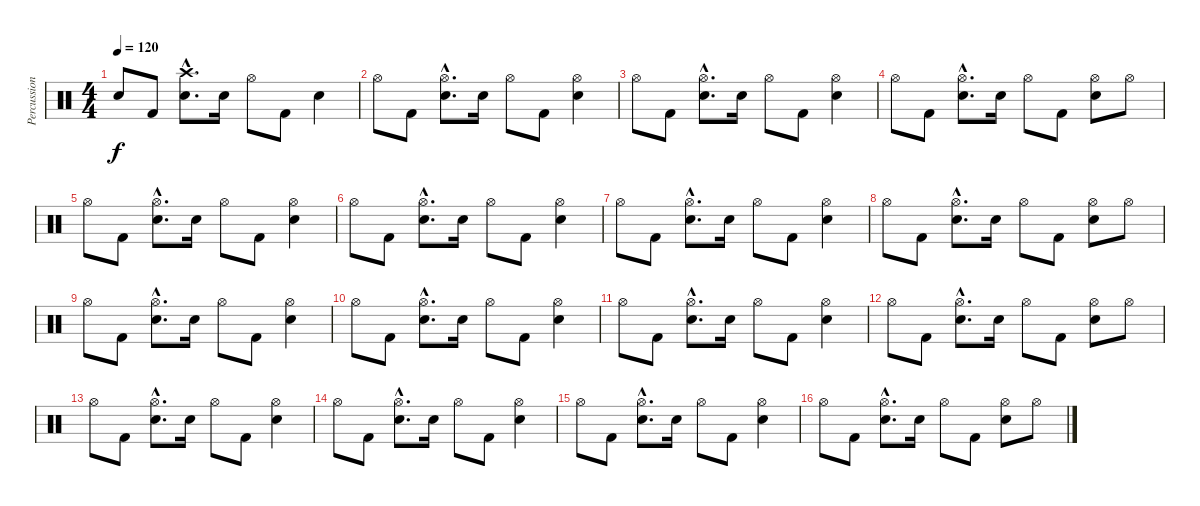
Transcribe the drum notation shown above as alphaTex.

\track ("Percussion" "Percussion") {instrument percussion}
\staff {score}
\articulation defaults
\ts (4 4)
\tempo 120
\clef neutral
\ks c "Snare (hit) 2".8{dy f} "Kick (hit) 2".8
("Crash high (hit)"{hac} "Snare (hit) 2"{hac}).8{d} "Snare (hit) 2".16 "Hi-Hat (open)".8 "Kick (hit) 2".8 "Snare (hit) 2".4 |
"Hi-Hat (open)".8 "Kick (hit) 2".8 ("Hi-Hat (open)"{hac} "Snare (hit) 2"{hac}).8{d} "Snare (hit) 2".16 "Hi-Hat (open)".8 "Kick (hit) 2".8 ("Hi-Hat (open)" "Snare (hit) 2").4 |
"Hi-Hat (open)".8 "Kick (hit) 2".8 ("Hi-Hat (open)"{hac} "Snare (hit) 2"{hac}).8{d} "Snare (hit) 2".16 "Hi-Hat (open)".8 "Kick (hit) 2".8 ("Hi-Hat (open)" "Snare (hit) 2").4 |
"Hi-Hat (open)".8 "Kick (hit) 2".8 ("Hi-Hat (open)"{hac} "Snare (hit) 2"{hac}).8{d} "Snare (hit) 2".16 "Hi-Hat (open)".8 "Kick (hit) 2".8 ("Hi-Hat (open)" "Snare (hit) 2").8 "Hi-Hat (open)".8 |
"Hi-Hat (open)".8 "Kick (hit) 2".8 ("Hi-Hat (open)"{hac} "Snare (hit) 2"{hac}).8{d} "Snare (hit) 2".16 "Hi-Hat (open)".8 "Kick (hit) 2".8 ("Hi-Hat (open)" "Snare (hit) 2").4 |
"Hi-Hat (open)".8 "Kick (hit) 2".8 ("Hi-Hat (open)"{hac} "Snare (hit) 2"{hac}).8{d} "Snare (hit) 2".16 "Hi-Hat (open)".8 "Kick (hit) 2".8 ("Hi-Hat (open)" "Snare (hit) 2").4 |
"Hi-Hat (open)".8 "Kick (hit) 2".8 ("Hi-Hat (open)"{hac} "Snare (hit) 2"{hac}).8{d} "Snare (hit) 2".16 "Hi-Hat (open)".8 "Kick (hit) 2".8 ("Hi-Hat (open)" "Snare (hit) 2").4 |
"Hi-Hat (open)".8 "Kick (hit) 2".8 ("Hi-Hat (open)"{hac} "Snare (hit) 2"{hac}).8{d} "Snare (hit) 2".16 "Hi-Hat (open)".8 "Kick (hit) 2".8 ("Hi-Hat (open)" "Snare (hit) 2").8 "Hi-Hat (open)".8 |
"Hi-Hat (open)".8 "Kick (hit) 2".8 ("Hi-Hat (open)"{hac} "Snare (hit) 2"{hac}).8{d} "Snare (hit) 2".16 "Hi-Hat (open)".8 "Kick (hit) 2".8 ("Hi-Hat (open)" "Snare (hit) 2").4 |
"Hi-Hat (open)".8 "Kick (hit) 2".8 ("Hi-Hat (open)"{hac} "Snare (hit) 2"{hac}).8{d} "Snare (hit) 2".16 "Hi-Hat (open)".8 "Kick (hit) 2".8 ("Hi-Hat (open)" "Snare (hit) 2").4 |
"Hi-Hat (open)".8 "Kick (hit) 2".8 ("Hi-Hat (open)"{hac} "Snare (hit) 2"{hac}).8{d} "Snare (hit) 2".16 "Hi-Hat (open)".8 "Kick (hit) 2".8 ("Hi-Hat (open)" "Snare (hit) 2").4 |
"Hi-Hat (open)".8 "Kick (hit) 2".8 ("Hi-Hat (open)"{hac} "Snare (hit) 2"{hac}).8{d} "Snare (hit) 2".16 "Hi-Hat (open)".8 "Kick (hit) 2".8 ("Hi-Hat (open)" "Snare (hit) 2").8 "Hi-Hat (open)".8 |
"Hi-Hat (open)".8 "Kick (hit) 2".8 ("Hi-Hat (open)"{hac} "Snare (hit) 2"{hac}).8{d} "Snare (hit) 2".16 "Hi-Hat (open)".8 "Kick (hit) 2".8 ("Hi-Hat (open)" "Snare (hit) 2").4 |
"Hi-Hat (open)".8 "Kick (hit) 2".8 ("Hi-Hat (open)"{hac} "Snare (hit) 2"{hac}).8{d} "Snare (hit) 2".16 "Hi-Hat (open)".8 "Kick (hit) 2".8 ("Hi-Hat (open)" "Snare (hit) 2").4 |
"Hi-Hat (open)".8 "Kick (hit) 2".8 ("Hi-Hat (open)"{hac} "Snare (hit) 2"{hac}).8{d} "Snare (hit) 2".16 "Hi-Hat (open)".8 "Kick (hit) 2".8 ("Hi-Hat (open)" "Snare (hit) 2").4 |
"Hi-Hat (open)".8 "Kick (hit) 2".8 ("Hi-Hat (open)"{hac} "Snare (hit) 2"{hac}).8{d} "Snare (hit) 2".16 "Hi-Hat (open)".8 "Kick (hit) 2".8 ("Hi-Hat (open)" "Snare (hit) 2").8 "Hi-Hat (open)".8
